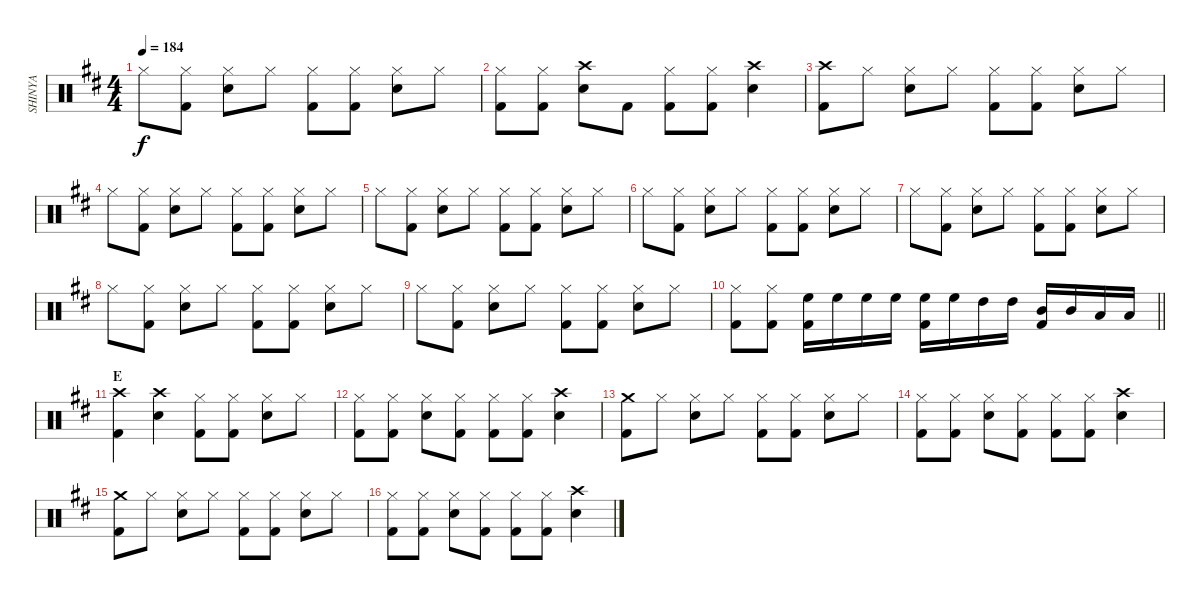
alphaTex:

\track ("SHINYA" "SHINYA") {instrument percussion}
\staff {score}
\articulation defaults
\ts (4 4)
\tempo 184
\clef neutral
\ks bminor "Hi-Hat (closed)".8{dy f}
("Hi-Hat (closed)" "Kick (hit) 2").8 ("Hi-Hat (closed)" "Snare (hit) 2").8 "Hi-Hat (closed)".8 ("Hi-Hat (closed)" "Kick (hit) 2").8 ("Hi-Hat (closed)" "Kick (hit) 2").8 ("Hi-Hat (closed)" "Snare (hit) 2").8 "Hi-Hat (closed)".8 |
("Hi-Hat (closed)" "Kick (hit) 2").8 ("Hi-Hat (closed)" "Kick (hit) 2").8 ("Crash high (hit)" "Snare (hit) 2").8 "Kick (hit) 2".8 ("Hi-Hat (closed)" "Kick (hit) 2").8 ("Hi-Hat (closed)" "Kick (hit) 2").8 ("Crash high (hit)" "Snare (hit) 2").4 |
("Crash high (hit)" "Kick (hit) 2").8 "Hi-Hat (closed)".8 ("Hi-Hat (closed)" "Snare (hit) 2").8 "Hi-Hat (closed)".8 ("Hi-Hat (closed)" "Kick (hit) 2").8 ("Hi-Hat (closed)" "Kick (hit) 2").8 ("Hi-Hat (closed)" "Snare (hit) 2").8 "Hi-Hat (closed)".8 |
"Hi-Hat (closed)".8 ("Hi-Hat (closed)" "Kick (hit) 2").8 ("Hi-Hat (closed)" "Snare (hit) 2").8 "Hi-Hat (closed)".8 ("Hi-Hat (closed)" "Kick (hit) 2").8 ("Hi-Hat (closed)" "Kick (hit) 2").8 ("Hi-Hat (closed)" "Snare (hit) 2").8 "Hi-Hat (closed)".8 |
"Hi-Hat (closed)".8 ("Hi-Hat (closed)" "Kick (hit) 2").8 ("Hi-Hat (closed)" "Snare (hit) 2").8 "Hi-Hat (closed)".8 ("Hi-Hat (closed)" "Kick (hit) 2").8 ("Hi-Hat (closed)" "Kick (hit) 2").8 ("Hi-Hat (closed)" "Snare (hit) 2").8 "Hi-Hat (closed)".8 |
"Hi-Hat (closed)".8 ("Hi-Hat (closed)" "Kick (hit) 2").8 ("Hi-Hat (closed)" "Snare (hit) 2").8 "Hi-Hat (closed)".8 ("Hi-Hat (closed)" "Kick (hit) 2").8 ("Hi-Hat (closed)" "Kick (hit) 2").8 ("Hi-Hat (closed)" "Snare (hit) 2").8 "Hi-Hat (closed)".8 |
"Hi-Hat (closed)".8 ("Hi-Hat (closed)" "Kick (hit) 2").8 ("Hi-Hat (closed)" "Snare (hit) 2").8 "Hi-Hat (closed)".8 ("Hi-Hat (closed)" "Kick (hit) 2").8 ("Hi-Hat (closed)" "Kick (hit) 2").8 ("Hi-Hat (closed)" "Snare (hit) 2").8 "Hi-Hat (closed)".8 |
"Hi-Hat (closed)".8 ("Hi-Hat (closed)" "Kick (hit) 2").8 ("Hi-Hat (closed)" "Snare (hit) 2").8 "Hi-Hat (closed)".8 ("Hi-Hat (closed)" "Kick (hit) 2").8 ("Hi-Hat (closed)" "Kick (hit) 2").8 ("Hi-Hat (closed)" "Snare (hit) 2").8 "Hi-Hat (closed)".8 |
"Hi-Hat (closed)".8 ("Hi-Hat (closed)" "Kick (hit) 2").8 ("Hi-Hat (closed)" "Snare (hit) 2").8 "Hi-Hat (closed)".8 ("Hi-Hat (closed)" "Kick (hit) 2").8 ("Hi-Hat (closed)" "Kick (hit) 2").8 ("Hi-Hat (closed)" "Snare (hit) 2").8 "Hi-Hat (closed)".8 |
\barLineRight lightlight
("Hi-Hat (closed)" "Kick (hit) 2").8 ("Hi-Hat (closed)" "Kick (hit) 2").8 ("High Floor Tom (hit)" "Kick (hit) 2").16 "High Floor Tom (hit)".16 "High Floor Tom (hit)".16 "High Floor Tom (hit)".16 ("High Floor Tom (hit)" "Kick (hit) 2").16 "High Floor Tom (hit)".16 "High Tom (hit)".16 "High Tom (hit)".16 ("Mid Tom (hit)" "Kick (hit) 2").16 "Mid Tom (hit)".16 "Low Tom (hit)".16 "Low Tom (hit)".16 |
\section ("" "E")
("Crash high (hit)" "Kick (hit) 2").4 ("Crash high (hit)" "Snare (hit) 2").4 ("Hi-Hat (closed)" "Kick (hit) 2").8 ("Hi-Hat (closed)" "Kick (hit) 2").8 ("Hi-Hat (closed)" "Snare (hit) 2").8 "Hi-Hat (closed)".8 |
("Hi-Hat (closed)" "Kick (hit) 2").8 ("Hi-Hat (closed)" "Kick (hit) 2").8 ("Hi-Hat (closed)" "Snare (hit) 2").8 ("Hi-Hat (closed)" "Kick (hit) 2").8 ("Hi-Hat (closed)" "Kick (hit) 2").8 ("Hi-Hat (closed)" "Kick (hit) 2").8 ("Crash high (hit)" "Snare (hit) 2").4 |
("Crash medium (hit)" "Kick (hit) 2").8 "Hi-Hat (closed)".8 ("Hi-Hat (closed)" "Snare (hit) 2").8 "Hi-Hat (closed)".8 ("Hi-Hat (closed)" "Kick (hit) 2").8 ("Hi-Hat (closed)" "Kick (hit) 2").8 ("Hi-Hat (closed)" "Snare (hit) 2").8 "Hi-Hat (closed)".8 |
("Hi-Hat (closed)" "Kick (hit) 2").8 ("Hi-Hat (closed)" "Kick (hit) 2").8 ("Hi-Hat (closed)" "Snare (hit) 2").8 ("Hi-Hat (closed)" "Kick (hit) 2").8 ("Hi-Hat (closed)" "Kick (hit) 2").8 ("Hi-Hat (closed)" "Kick (hit) 2").8 ("Crash high (hit)" "Snare (hit) 2").4 |
("Crash medium (hit)" "Kick (hit) 2").8 "Hi-Hat (closed)".8 ("Hi-Hat (closed)" "Snare (hit) 2").8 "Hi-Hat (closed)".8 ("Hi-Hat (closed)" "Kick (hit) 2").8 ("Hi-Hat (closed)" "Kick (hit) 2").8 ("Hi-Hat (closed)" "Snare (hit) 2").8 "Hi-Hat (closed)".8 |
("Hi-Hat (closed)" "Kick (hit) 2").8 ("Hi-Hat (closed)" "Kick (hit) 2").8 ("Hi-Hat (closed)" "Snare (hit) 2").8 ("Hi-Hat (closed)" "Kick (hit) 2").8 ("Hi-Hat (closed)" "Kick (hit) 2").8 ("Hi-Hat (closed)" "Kick (hit) 2").8 ("Crash high (hit)" "Snare (hit) 2").4
